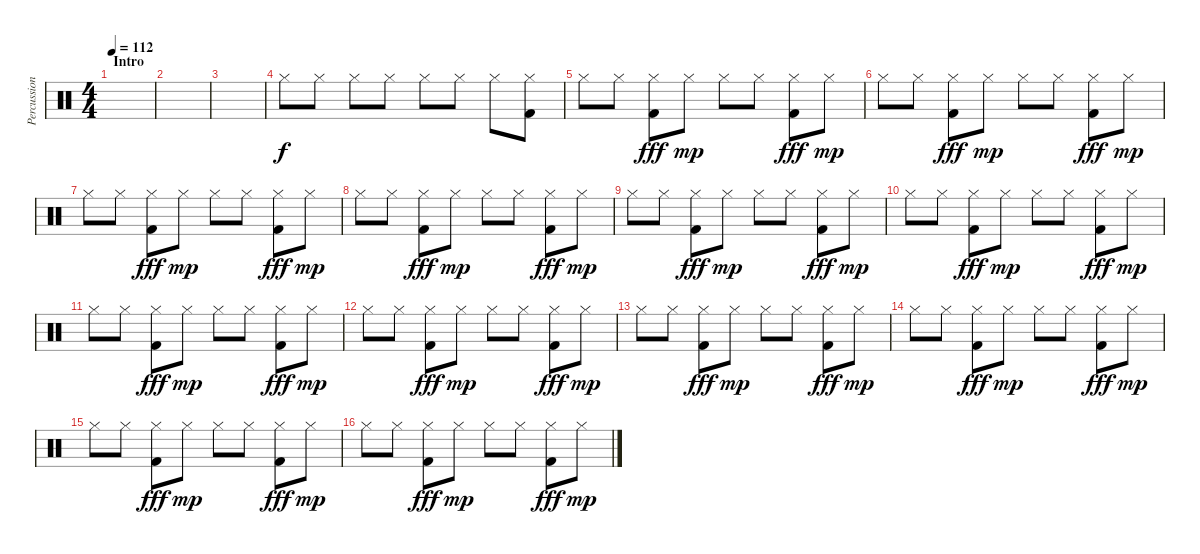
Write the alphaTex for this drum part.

\track ("Percussions" "Percussion") {instrument percussion}
\staff {score}
\articulation defaults
\ts (4 4)
\section ("" "Intro")
\tempo 112
\clef neutral
\ks c
|
|
|
"Hi-Hat (closed)".8 "Hi-Hat (closed)".8 "Hi-Hat (closed)".8 "Hi-Hat (closed)".8 "Hi-Hat (closed)".8 "Hi-Hat (closed)".8 "Hi-Hat (closed)".8 ("Hi-Hat (closed)" "Kick (hit) 2").8 |
"Hi-Hat (closed)".8 "Hi-Hat (closed)".8 ("Hi-Hat (closed)" "Kick (hit) 2").8{dy fff} "Hi-Hat (closed)".8{dy mp} "Hi-Hat (closed)".8 "Hi-Hat (closed)".8 ("Hi-Hat (closed)" "Kick (hit) 2").8{dy fff} "Hi-Hat (closed)".8{dy mp} |
"Hi-Hat (closed)".8 "Hi-Hat (closed)".8 ("Hi-Hat (closed)" "Kick (hit) 2").8{dy fff} "Hi-Hat (closed)".8{dy mp} "Hi-Hat (closed)".8 "Hi-Hat (closed)".8 ("Hi-Hat (closed)" "Kick (hit) 2").8{dy fff} "Hi-Hat (closed)".8{dy mp} |
"Hi-Hat (closed)".8 "Hi-Hat (closed)".8 ("Hi-Hat (closed)" "Kick (hit) 2").8{dy fff} "Hi-Hat (closed)".8{dy mp} "Hi-Hat (closed)".8 "Hi-Hat (closed)".8 ("Hi-Hat (closed)" "Kick (hit) 2").8{dy fff} "Hi-Hat (closed)".8{dy mp} |
"Hi-Hat (closed)".8 "Hi-Hat (closed)".8 ("Hi-Hat (closed)" "Kick (hit) 2").8{dy fff} "Hi-Hat (closed)".8{dy mp} "Hi-Hat (closed)".8 "Hi-Hat (closed)".8 ("Hi-Hat (closed)" "Kick (hit) 2").8{dy fff} "Hi-Hat (closed)".8{dy mp} |
"Hi-Hat (closed)".8 "Hi-Hat (closed)".8 ("Hi-Hat (closed)" "Kick (hit) 2").8{dy fff} "Hi-Hat (closed)".8{dy mp} "Hi-Hat (closed)".8 "Hi-Hat (closed)".8 ("Hi-Hat (closed)" "Kick (hit) 2").8{dy fff} "Hi-Hat (closed)".8{dy mp} |
"Hi-Hat (closed)".8 "Hi-Hat (closed)".8 ("Hi-Hat (closed)" "Kick (hit) 2").8{dy fff} "Hi-Hat (closed)".8{dy mp} "Hi-Hat (closed)".8 "Hi-Hat (closed)".8 ("Hi-Hat (closed)" "Kick (hit) 2").8{dy fff} "Hi-Hat (closed)".8{dy mp} |
"Hi-Hat (closed)".8 "Hi-Hat (closed)".8 ("Hi-Hat (closed)" "Kick (hit) 2").8{dy fff} "Hi-Hat (closed)".8{dy mp} "Hi-Hat (closed)".8 "Hi-Hat (closed)".8 ("Hi-Hat (closed)" "Kick (hit) 2").8{dy fff} "Hi-Hat (closed)".8{dy mp} |
"Hi-Hat (closed)".8 "Hi-Hat (closed)".8 ("Hi-Hat (closed)" "Kick (hit) 2").8{dy fff} "Hi-Hat (closed)".8{dy mp} "Hi-Hat (closed)".8 "Hi-Hat (closed)".8 ("Hi-Hat (closed)" "Kick (hit) 2").8{dy fff} "Hi-Hat (closed)".8{dy mp} |
"Hi-Hat (closed)".8 "Hi-Hat (closed)".8 ("Hi-Hat (closed)" "Kick (hit) 2").8{dy fff} "Hi-Hat (closed)".8{dy mp} "Hi-Hat (closed)".8 "Hi-Hat (closed)".8 ("Hi-Hat (closed)" "Kick (hit) 2").8{dy fff} "Hi-Hat (closed)".8{dy mp} |
"Hi-Hat (closed)".8 "Hi-Hat (closed)".8 ("Hi-Hat (closed)" "Kick (hit) 2").8{dy fff} "Hi-Hat (closed)".8{dy mp} "Hi-Hat (closed)".8 "Hi-Hat (closed)".8 ("Hi-Hat (closed)" "Kick (hit) 2").8{dy fff} "Hi-Hat (closed)".8{dy mp} |
"Hi-Hat (closed)".8 "Hi-Hat (closed)".8 ("Hi-Hat (closed)" "Kick (hit) 2").8{dy fff} "Hi-Hat (closed)".8{dy mp} "Hi-Hat (closed)".8 "Hi-Hat (closed)".8 ("Hi-Hat (closed)" "Kick (hit) 2").8{dy fff} "Hi-Hat (closed)".8{dy mp} |
"Hi-Hat (closed)".8 "Hi-Hat (closed)".8 ("Hi-Hat (closed)" "Kick (hit) 2").8{dy fff} "Hi-Hat (closed)".8{dy mp} "Hi-Hat (closed)".8 "Hi-Hat (closed)".8 ("Hi-Hat (closed)" "Kick (hit) 2").8{dy fff} "Hi-Hat (closed)".8{dy mp}
